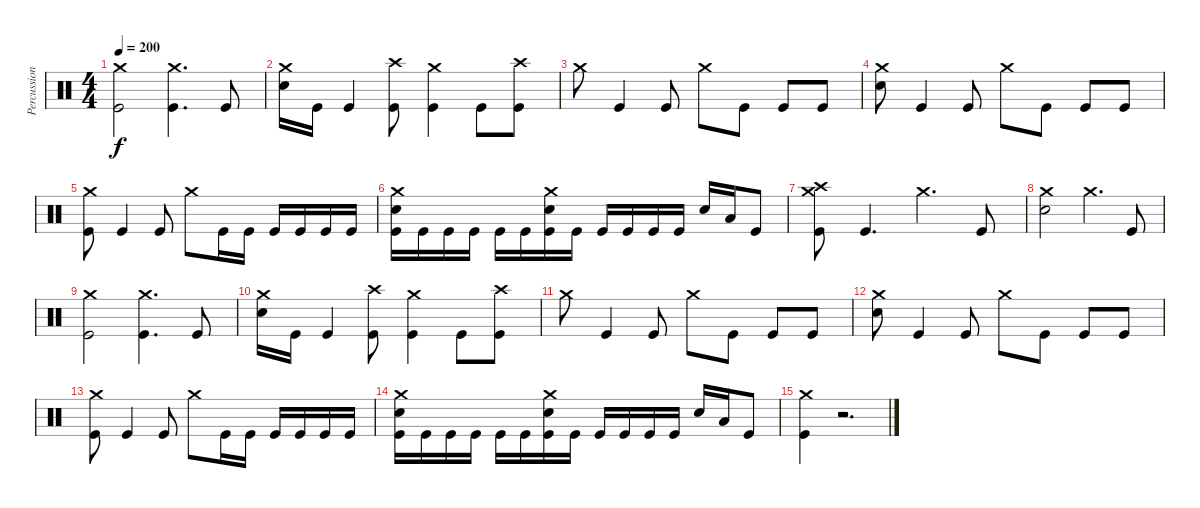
\track ("Percussion" "Percussion") {instrument percussion}
\staff {score}
\articulation defaults
\ts (4 4)
\tempo 200
\clef neutral
\ks c
("Crash medium (hit)" "Kick (hit)").2{dy f} ("Crash medium (hit)" "Kick (hit)").4{d} "Kick (hit)".8 |
("Crash medium (hit)" "Snare (hit) 2").16 "Kick (hit)".16 "Kick (hit)".4 ("Crash high (hit)" "Kick (hit)").8 ("Crash medium (hit)" "Kick (hit)").4 "Kick (hit)".8 ("Crash high (hit)" "Kick (hit)").8 |
"Crash medium (hit)".8 "Kick (hit)".4 "Kick (hit)".8 "Crash medium (hit)".8 "Kick (hit)".8 "Kick (hit)".8 "Kick (hit)".8 |
("Crash medium (hit)" "Snare (hit) 2").8 "Kick (hit)".4 "Kick (hit)".8 "Crash medium (hit)".8 "Kick (hit)".8 "Kick (hit)".8 "Kick (hit)".8 |
("Crash medium (hit)" "Kick (hit)").8 "Kick (hit)".4 "Kick (hit)".8 "Crash medium (hit)".8 "Kick (hit)".16 "Kick (hit)".16 "Kick (hit)".16 "Kick (hit)".16 "Kick (hit)".16 "Kick (hit)".16 |
("Crash medium (hit)" "Snare (hit) 2" "Kick (hit)").16 "Kick (hit)".16 "Kick (hit)".16 "Kick (hit)".16 "Kick (hit)".16 "Kick (hit)".16 ("Crash medium (hit)" "Snare (hit) 2" "Kick (hit)").16 "Kick (hit)".16 "Kick (hit)".16 "Kick (hit)".16 "Kick (hit)".16 "Kick (hit)".16 "Snare (hit) 2".16 "Low Tom (hit)".16 "Kick (hit)".8 |
("Crash medium (hit)" "Crash high (hit)" "Kick (hit)").8 "Kick (hit)".4{d} "Crash medium (hit)".4{d} "Kick (hit)".8 |
("Crash medium (hit)" "Snare (hit) 2").2 "Crash medium (hit)".4{d} "Kick (hit)".8 |
("Crash medium (hit)" "Kick (hit)").2 ("Crash medium (hit)" "Kick (hit)").4{d} "Kick (hit)".8 |
("Crash medium (hit)" "Snare (hit) 2").16 "Kick (hit)".16 "Kick (hit)".4 ("Crash high (hit)" "Kick (hit)").8 ("Crash medium (hit)" "Kick (hit)").4 "Kick (hit)".8 ("Crash high (hit)" "Kick (hit)").8 |
"Crash medium (hit)".8 "Kick (hit)".4 "Kick (hit)".8 "Crash medium (hit)".8 "Kick (hit)".8 "Kick (hit)".8 "Kick (hit)".8 |
("Crash medium (hit)" "Snare (hit) 2").8 "Kick (hit)".4 "Kick (hit)".8 "Crash medium (hit)".8 "Kick (hit)".8 "Kick (hit)".8 "Kick (hit)".8 |
("Crash medium (hit)" "Kick (hit)").8 "Kick (hit)".4 "Kick (hit)".8 "Crash medium (hit)".8 "Kick (hit)".16 "Kick (hit)".16 "Kick (hit)".16 "Kick (hit)".16 "Kick (hit)".16 "Kick (hit)".16 |
("Crash medium (hit)" "Snare (hit) 2" "Kick (hit)").16 "Kick (hit)".16 "Kick (hit)".16 "Kick (hit)".16 "Kick (hit)".16 "Kick (hit)".16 ("Crash medium (hit)" "Snare (hit) 2" "Kick (hit)").16 "Kick (hit)".16 "Kick (hit)".16 "Kick (hit)".16 "Kick (hit)".16 "Kick (hit)".16 "Snare (hit) 2".16 "Low Tom (hit)".16 "Kick (hit)".8 |
("Crash medium (hit)" "Kick (hit)").4 r.2{d}
